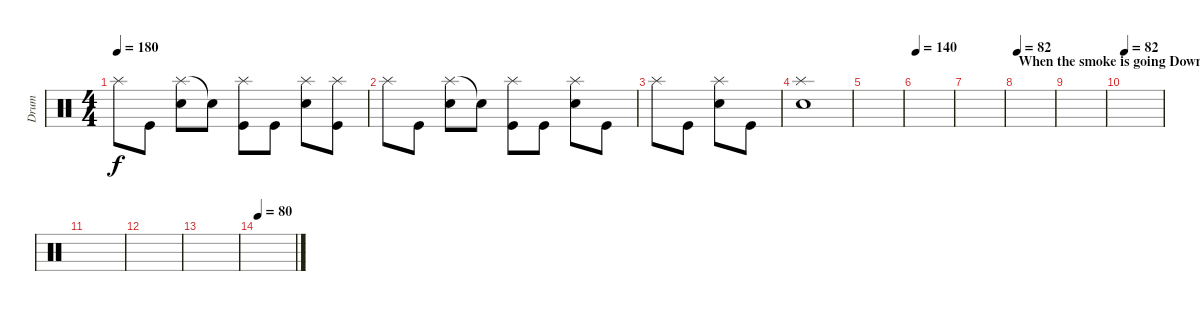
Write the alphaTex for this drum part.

\track ("Drum" "Drum") {instrument percussion}
\staff {score}
\articulation defaults
\ts (4 4)
\tempo 180
\clef neutral
\ks c "Splash (hit)".8{dy f} "Kick (hit)".8
("Splash (hit)" "Snare (hit) 2").8 "Snare (hit)"{t}.8 ("Splash (hit)" "Kick (hit)").8 "Kick (hit)".8 ("Splash (hit)" "Snare (hit) 2").8 ("Splash (hit)" "Kick (hit)").8 |
"Splash (hit)".8 "Kick (hit)".8 ("Splash (hit)" "Snare (hit) 2").8 "Snare (hit)"{t}.8 ("Splash (hit)" "Kick (hit)").8 "Kick (hit)".8 ("Splash (hit)" "Snare (hit) 2").8 "Kick (hit)".8 |
"Splash (hit)".8 "Kick (hit)".8 ("Splash (hit)" "Snare (hit) 2").8 "Kick (hit)".8 |
("Splash (hit)" "Snare (hit) 2").1 |
|
\tempo 140
|
|
\section ("" "When the smoke is going Down (cover Scorpions)(with Spiders bass)")
\tempo 82
|
|
\tempo 82
|
|
|
|
\tempo 80
